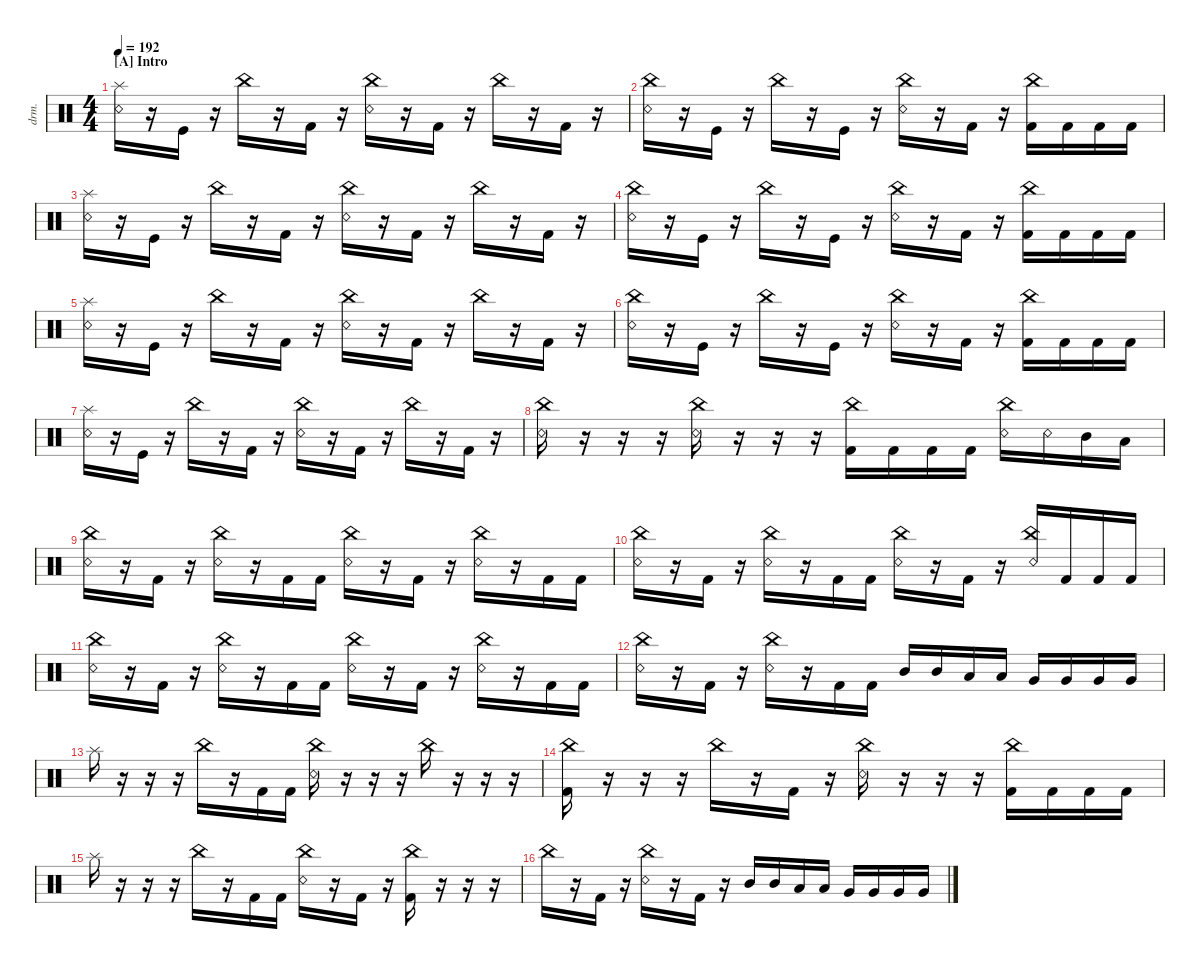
\defaultSystemsLayout 4
\hideDynamics
\bracketExtendMode nobrackets
\otherSystemsTrackNameOrientation horizontal
\track ("Drumkit" "drm.") {instrument percussion}
\staff {score}
\articulation defaults
\ts (4 4)
\section ("A" "Intro")
\tempo 192
\clef neutral
\ks c
("Snare (rim shot)" "Splash (hit)").16{dy ff beam Down} r.16{beam Down} "Kick (hit)".16{beam Down} r.16{beam Down} "China (hit)".16{beam Down} r.16{beam Down} "Kick (hit) 2".16{beam Down} r.16{beam Down} ("China (hit)" "Snare (rim shot)").16{beam Down} r.16{beam Down} "Kick (hit) 2".16{beam Down} r.16{beam Down} "China (hit)".16{beam Down} r.16{beam Down} "Kick (hit) 2".16{beam Down} r.16{beam Down} |
("China (hit)" "Snare (rim shot)").16{beam Down} r.16{beam Down} "Kick (hit)".16{beam Down} r.16{beam Down} "China (hit)".16{beam Down} r.16{beam Down} "Kick (hit)".16{beam Down} r.16{beam Down} ("China (hit)" "Snare (rim shot)").16{beam Down} r.16{beam Down} "Kick (hit) 2".16{beam Down} r.16{beam Down} ("China (hit)" "Kick (hit) 2").16{beam Down} "Kick (hit) 2".16{beam Down} "Kick (hit) 2".16{beam Down} "Kick (hit) 2".16{beam Down} |
("Snare (rim shot)" "Splash (hit)").16{beam Down} r.16{beam Down} "Kick (hit)".16{beam Down} r.16{beam Down} "China (hit)".16{beam Down} r.16{beam Down} "Kick (hit) 2".16{beam Down} r.16{beam Down} ("China (hit)" "Snare (rim shot)").16{beam Down} r.16{beam Down} "Kick (hit) 2".16{beam Down} r.16{beam Down} "China (hit)".16{beam Down} r.16{beam Down} "Kick (hit) 2".16{beam Down} r.16{beam Down} |
("China (hit)" "Snare (rim shot)").16{beam Down} r.16{beam Down} "Kick (hit)".16{beam Down} r.16{beam Down} "China (hit)".16{beam Down} r.16{beam Down} "Kick (hit)".16{beam Down} r.16{beam Down} ("China (hit)" "Snare (rim shot)").16{beam Down} r.16{beam Down} "Kick (hit) 2".16{beam Down} r.16{beam Down} ("China (hit)" "Kick (hit) 2").16{beam Down} "Kick (hit) 2".16{beam Down} "Kick (hit) 2".16{beam Down} "Kick (hit) 2".16{beam Down} |
("Snare (rim shot)" "Splash (hit)").16{beam Down} r.16{beam Down} "Kick (hit)".16{beam Down} r.16{beam Down} "China (hit)".16{beam Down} r.16{beam Down} "Kick (hit) 2".16{beam Down} r.16{beam Down} ("China (hit)" "Snare (rim shot)").16{beam Down} r.16{beam Down} "Kick (hit) 2".16{beam Down} r.16{beam Down} "China (hit)".16{beam Down} r.16{beam Down} "Kick (hit) 2".16{beam Down} r.16{beam Down} |
("China (hit)" "Snare (rim shot)").16{beam Down} r.16{beam Down} "Kick (hit)".16{beam Down} r.16{beam Down} "China (hit)".16{beam Down} r.16{beam Down} "Kick (hit)".16{beam Down} r.16{beam Down} ("China (hit)" "Snare (rim shot)").16{beam Down} r.16{beam Down} "Kick (hit) 2".16{beam Down} r.16{beam Down} ("China (hit)" "Kick (hit) 2").16{beam Down} "Kick (hit) 2".16{beam Down} "Kick (hit) 2".16{beam Down} "Kick (hit) 2".16{beam Down} |
("Snare (rim shot)" "Splash (hit)").16{beam Down} r.16{beam Down} "Kick (hit)".16{beam Down} r.16{beam Down} "China (hit)".16{beam Down} r.16{beam Down} "Kick (hit) 2".16{beam Down} r.16{beam Down} ("China (hit)" "Snare (rim shot)").16{beam Down} r.16{beam Down} "Kick (hit) 2".16{beam Down} r.16{beam Down} "China (hit)".16{beam Down} r.16{beam Down} "Kick (hit) 2".16{beam Down} r.16{beam Down} |
("China (hit)" "Snare (rim shot)").16{beam Down} r.16{beam Down} r.16{beam Down} r.16{beam Down} ("China (hit)" "Snare (rim shot)").16{beam Down} r.16{beam Down} r.16{beam Down} r.16{beam Down} ("China (hit)" "Kick (hit) 2").16{beam Down} "Kick (hit) 2".16{beam Down} "Kick (hit) 2".16{beam Down} "Kick (hit) 2".16{beam Down} ("China (hit)" "Snare (rim shot)").16{beam Down} "Snare (rim shot)".16{beam Down} "Mid Tom (hit)".16{beam Down} "Low Tom (hit)".16{beam Down} |
("China (hit)" "Snare (rim shot)").16{beam Down} r.16{beam Down} "Kick (hit) 2".16{beam Down} r.16{beam Down} ("China (hit)" "Snare (rim shot)").16{beam Down} r.16{beam Down} "Kick (hit) 2".16{beam Down} "Kick (hit) 2".16{beam Down} ("China (hit)" "Snare (rim shot)").16{beam Down} r.16{beam Down} "Kick (hit) 2".16{beam Down} r.16{beam Down} ("China (hit)" "Snare (rim shot)").16{beam Down} r.16{beam Down} "Kick (hit) 2".16{beam Down} "Kick (hit) 2".16{beam Down} |
("China (hit)" "Snare (rim shot)").16{beam Down} r.16{beam Down} "Kick (hit) 2".16{beam Down} r.16{beam Down} ("China (hit)" "Snare (rim shot)").16{beam Down} r.16{beam Down} "Kick (hit) 2".16{beam Down} "Kick (hit) 2".16{beam Down} ("China (hit)" "Snare (rim shot)").16{beam Down} r.16{beam Down} "Kick (hit) 2".16{beam Down} r.16{beam Down} ("China (hit)" "Snare (rim shot)").16{beam Up} "Kick (hit) 2".16{beam Up} "Kick (hit) 2".16{beam Up} "Kick (hit) 2".16{beam Up} |
("China (hit)" "Snare (rim shot)").16{beam Down} r.16{beam Down} "Kick (hit) 2".16{beam Down} r.16{beam Down} ("China (hit)" "Snare (rim shot)").16{beam Down} r.16{beam Down} "Kick (hit) 2".16{beam Down} "Kick (hit) 2".16{beam Down} ("China (hit)" "Snare (rim shot)").16{beam Down} r.16{beam Down} "Kick (hit) 2".16{beam Down} r.16{beam Down} ("China (hit)" "Snare (rim shot)").16{beam Down} r.16{beam Down} "Kick (hit) 2".16{beam Down} "Kick (hit) 2".16{beam Down} |
("China (hit)" "Snare (rim shot)").16{beam Down} r.16{beam Down} "Kick (hit) 2".16{beam Down} r.16{beam Down} ("China (hit)" "Snare (rim shot)").16{beam Down} r.16{beam Down} "Kick (hit) 2".16{beam Down} "Kick (hit) 2".16{beam Down} "Mid Tom (hit)".16{beam Up} "Mid Tom (hit)".16{beam Up} "Low Tom (hit)".16{beam Up} "Low Tom (hit)".16{beam Up} "Very Low Tom (hit)".16{beam Up} "Very Low Tom (hit)".16{beam Up} "Very Low Tom (hit)".16{beam Up} "Very Low Tom (hit)".16{beam Up} |
"Splash (hit)".16{beam Down} r.16{beam Down} r.16{beam Down} r.16{beam Down} "China (hit)".16{beam Down} r.16{beam Down} "Kick (hit) 2".16{beam Down} "Kick (hit) 2".16{beam Down} ("China (hit)" "Snare (rim shot)").16{beam Down} r.16{beam Down} r.16{beam Down} r.16{beam Down} "China (hit)".16{beam Down} r.16{beam Down} r.16{beam Down} r.16{beam Down} |
("China (hit)" "Kick (hit) 2").16{beam Down} r.16{beam Down} r.16{beam Down} r.16{beam Down} "China (hit)".16{beam Down} r.16{beam Down} "Kick (hit) 2".16{beam Down} r.16{beam Down} ("China (hit)" "Snare (rim shot)").16{beam Down} r.16{beam Down} r.16{beam Down} r.16{beam Down} ("China (hit)" "Kick (hit) 2").16{beam Down} "Kick (hit) 2".16{beam Down} "Kick (hit) 2".16{beam Down} "Kick (hit) 2".16{beam Down} |
"Splash (hit)".16{beam Down} r.16{beam Down} r.16{beam Down} r.16{beam Down} "China (hit)".16{beam Down} r.16{beam Down} "Kick (hit) 2".16{beam Down} "Kick (hit) 2".16{beam Down} ("China (hit)" "Snare (rim shot)").16{beam Down} r.16{beam Down} "Kick (hit) 2".16{beam Down} r.16{beam Down} ("China (hit)" "Kick (hit) 2").16{beam Down} r.16{beam Down} r.16{beam Down} r.16{beam Down} |
"China (hit)".16{beam Down} r.16{beam Down} "Kick (hit) 2".16{beam Down} r.16{beam Down} ("China (hit)" "Snare (rim shot)").16{beam Down} r.16{beam Down} "Kick (hit) 2".16{beam Down} r.16{beam Down} "Mid Tom (hit)".16{beam Up} "Mid Tom (hit)".16{beam Up} "Low Tom (hit)".16{beam Up} "Low Tom (hit)".16{beam Up} "Very Low Tom (hit)".16{beam Up} "Very Low Tom (hit)".16{beam Up} "Very Low Tom (hit)".16{beam Up} "Very Low Tom (hit)".16{beam Up}
